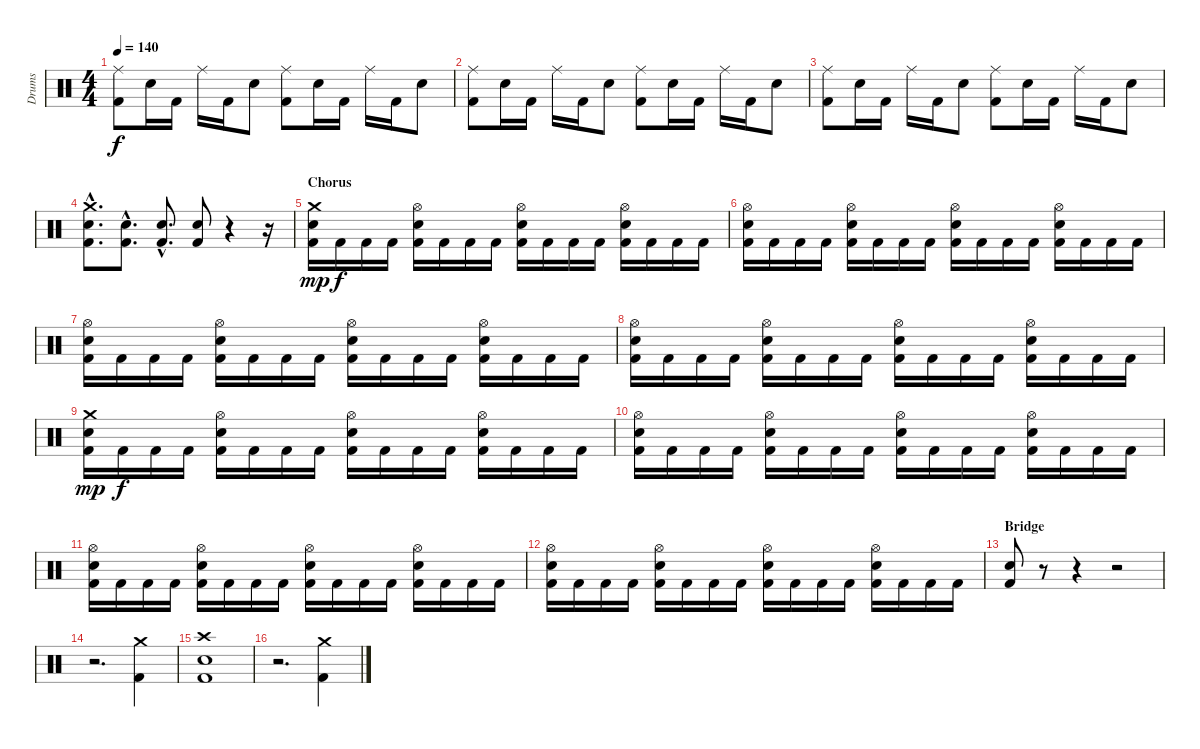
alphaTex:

\track ("Drums" "Drums") {instrument percussion}
\staff {score}
\articulation defaults
\ts (4 4)
\tempo 140
\clef neutral
\ks c
("Ride (middle)" "Kick (hit) 2").8{dy f} "Electric Snare (hit)".16 "Kick (hit) 2".16 "Ride (middle)".16 "Kick (hit) 2".16 "Electric Snare (hit)".8 ("Ride (middle)" "Kick (hit) 2").8 "Electric Snare (hit)".16 "Kick (hit) 2".16 "Ride (middle)".16 "Kick (hit) 2".16 "Electric Snare (hit)".8 |
("Ride (middle)" "Kick (hit) 2").8 "Electric Snare (hit)".16 "Kick (hit) 2".16 "Ride (middle)".16 "Kick (hit) 2".16 "Electric Snare (hit)".8 ("Ride (middle)" "Kick (hit) 2").8 "Electric Snare (hit)".16 "Kick (hit) 2".16 "Ride (middle)".16 "Kick (hit) 2".16 "Electric Snare (hit)".8 |
("Ride (middle)" "Kick (hit) 2").8 "Electric Snare (hit)".16 "Kick (hit) 2".16 "Ride (middle)".16 "Kick (hit) 2".16 "Electric Snare (hit)".8 ("Ride (middle)" "Kick (hit) 2").8 "Electric Snare (hit)".16 "Kick (hit) 2".16 "Ride (middle)".16 "Kick (hit) 2".16 "Electric Snare (hit)".8 |
("Crash medium (hit)"{hac} "Electric Snare (hit)"{hac} "Kick (hit) 2"{hac}).8{d} ("Electric Snare (hit)"{hac} "Kick (hit) 2"{hac}).8{d} ("Electric Snare (hit)"{hac} "Kick (hit) 2"{hac}).8{d} ("Electric Snare (hit)" "Kick (hit) 2").8 r.4 r.16 |
\section ("" "Chorus")
("Crash medium (hit)" "Electric Snare (hit)" "Kick (hit) 2").16{dy mp} "Kick (hit) 2".16{dy f} "Kick (hit) 2".16 "Kick (hit) 2".16 ("Hi-Hat (open)" "Electric Snare (hit)" "Kick (hit) 2").16 "Kick (hit) 2".16 "Kick (hit) 2".16 "Kick (hit) 2".16 ("Hi-Hat (open)" "Electric Snare (hit)" "Kick (hit) 2").16 "Kick (hit) 2".16 "Kick (hit) 2".16 "Kick (hit) 2".16 ("Hi-Hat (open)" "Electric Snare (hit)" "Kick (hit) 2").16 "Kick (hit) 2".16 "Kick (hit) 2".16 "Kick (hit) 2".16 |
("Hi-Hat (open)" "Electric Snare (hit)" "Kick (hit) 2").16 "Kick (hit) 2".16 "Kick (hit) 2".16 "Kick (hit) 2".16 ("Hi-Hat (open)" "Electric Snare (hit)" "Kick (hit) 2").16 "Kick (hit) 2".16 "Kick (hit) 2".16 "Kick (hit) 2".16 ("Hi-Hat (open)" "Electric Snare (hit)" "Kick (hit) 2").16 "Kick (hit) 2".16 "Kick (hit) 2".16 "Kick (hit) 2".16 ("Hi-Hat (open)" "Electric Snare (hit)" "Kick (hit) 2").16 "Kick (hit) 2".16 "Kick (hit) 2".16 "Kick (hit) 2".16 |
("Hi-Hat (open)" "Electric Snare (hit)" "Kick (hit) 2").16 "Kick (hit) 2".16 "Kick (hit) 2".16 "Kick (hit) 2".16 ("Hi-Hat (open)" "Electric Snare (hit)" "Kick (hit) 2").16 "Kick (hit) 2".16 "Kick (hit) 2".16 "Kick (hit) 2".16 ("Hi-Hat (open)" "Electric Snare (hit)" "Kick (hit) 2").16 "Kick (hit) 2".16 "Kick (hit) 2".16 "Kick (hit) 2".16 ("Hi-Hat (open)" "Electric Snare (hit)" "Kick (hit) 2").16 "Kick (hit) 2".16 "Kick (hit) 2".16 "Kick (hit) 2".16 |
("Hi-Hat (open)" "Electric Snare (hit)" "Kick (hit) 2").16 "Kick (hit) 2".16 "Kick (hit) 2".16 "Kick (hit) 2".16 ("Hi-Hat (open)" "Electric Snare (hit)" "Kick (hit) 2").16 "Kick (hit) 2".16 "Kick (hit) 2".16 "Kick (hit) 2".16 ("Hi-Hat (open)" "Electric Snare (hit)" "Kick (hit) 2").16 "Kick (hit) 2".16 "Kick (hit) 2".16 "Kick (hit) 2".16 ("Hi-Hat (open)" "Electric Snare (hit)" "Kick (hit) 2").16 "Kick (hit) 2".16 "Kick (hit) 2".16 "Kick (hit) 2".16 |
("Crash medium (hit)" "Electric Snare (hit)" "Kick (hit) 2").16{dy mp} "Kick (hit) 2".16{dy f} "Kick (hit) 2".16 "Kick (hit) 2".16 ("Hi-Hat (open)" "Electric Snare (hit)" "Kick (hit) 2").16 "Kick (hit) 2".16 "Kick (hit) 2".16 "Kick (hit) 2".16 ("Hi-Hat (open)" "Electric Snare (hit)" "Kick (hit) 2").16 "Kick (hit) 2".16 "Kick (hit) 2".16 "Kick (hit) 2".16 ("Hi-Hat (open)" "Electric Snare (hit)" "Kick (hit) 2").16 "Kick (hit) 2".16 "Kick (hit) 2".16 "Kick (hit) 2".16 |
("Hi-Hat (open)" "Electric Snare (hit)" "Kick (hit) 2").16 "Kick (hit) 2".16 "Kick (hit) 2".16 "Kick (hit) 2".16 ("Hi-Hat (open)" "Electric Snare (hit)" "Kick (hit) 2").16 "Kick (hit) 2".16 "Kick (hit) 2".16 "Kick (hit) 2".16 ("Hi-Hat (open)" "Electric Snare (hit)" "Kick (hit) 2").16 "Kick (hit) 2".16 "Kick (hit) 2".16 "Kick (hit) 2".16 ("Hi-Hat (open)" "Electric Snare (hit)" "Kick (hit) 2").16 "Kick (hit) 2".16 "Kick (hit) 2".16 "Kick (hit) 2".16 |
("Hi-Hat (open)" "Electric Snare (hit)" "Kick (hit) 2").16 "Kick (hit) 2".16 "Kick (hit) 2".16 "Kick (hit) 2".16 ("Hi-Hat (open)" "Electric Snare (hit)" "Kick (hit) 2").16 "Kick (hit) 2".16 "Kick (hit) 2".16 "Kick (hit) 2".16 ("Hi-Hat (open)" "Electric Snare (hit)" "Kick (hit) 2").16 "Kick (hit) 2".16 "Kick (hit) 2".16 "Kick (hit) 2".16 ("Hi-Hat (open)" "Electric Snare (hit)" "Kick (hit) 2").16 "Kick (hit) 2".16 "Kick (hit) 2".16 "Kick (hit) 2".16 |
("Hi-Hat (open)" "Electric Snare (hit)" "Kick (hit) 2").16 "Kick (hit) 2".16 "Kick (hit) 2".16 "Kick (hit) 2".16 ("Hi-Hat (open)" "Electric Snare (hit)" "Kick (hit) 2").16 "Kick (hit) 2".16 "Kick (hit) 2".16 "Kick (hit) 2".16 ("Hi-Hat (open)" "Electric Snare (hit)" "Kick (hit) 2").16 "Kick (hit) 2".16 "Kick (hit) 2".16 "Kick (hit) 2".16 ("Hi-Hat (open)" "Electric Snare (hit)" "Kick (hit) 2").16 "Kick (hit) 2".16 "Kick (hit) 2".16 "Kick (hit) 2".16 |
\section ("" "Bridge")
("Electric Snare (hit)" "Kick (hit) 2").8 r.8 r.4 r.2 |
r.2{d} ("Crash medium (hit)" "Kick (hit) 2").4 |
("Crash high (hit)" "Electric Snare (hit)" "Kick (hit) 2").1 |
r.2{d} ("Crash medium (hit)" "Kick (hit) 2").4
